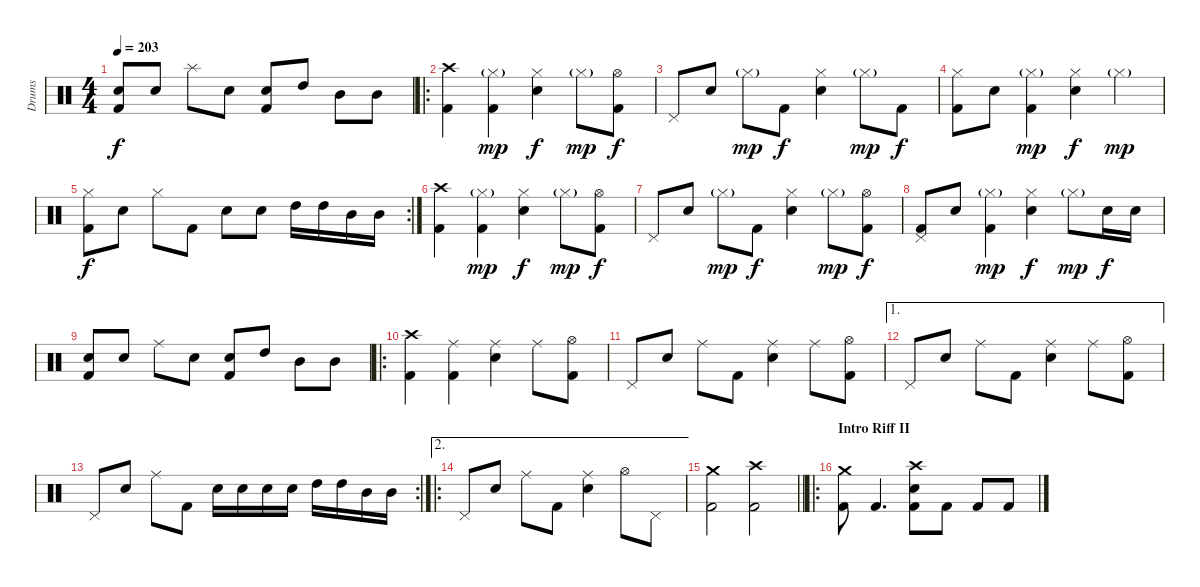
\track ("Drums" "Drums") {instrument percussion}
\staff {score}
\articulation defaults
\ts (4 4)
\tempo 203
\clef neutral
\ks c
("Electric Snare (hit)" "Kick (hit) 2").8{dy f} "Electric Snare (hit)".8 "Splash (hit)".8 "Electric Snare (hit)".8 ("Electric Snare (hit)" "Kick (hit) 2").8 "High Tom (hit)".8 "Mid Tom (hit)".8 "Mid Tom (hit)".8 |
\ro
("Crash high (hit)" "Kick (hit) 2").4 ("Hi-Hat (closed)"{g} "Kick (hit) 2").4{dy mp} ("Hi-Hat (closed)" "Electric Snare (hit)").4{dy f} "Hi-Hat (closed)"{g}.8{dy mp} ("Hi-Hat (open)" "Kick (hit) 2").8{dy f} |
"Pedal Hi-Hat (hit)".8 "Electric Snare (hit)".8 "Hi-Hat (closed)"{g}.8{dy mp} "Kick (hit) 2".8{dy f} ("Hi-Hat (closed)" "Electric Snare (hit)").4 "Hi-Hat (closed)"{g}.8{dy mp} "Kick (hit) 2".8{dy f} |
("Hi-Hat (closed)" "Kick (hit) 2").8 "Electric Snare (hit)".8 ("Hi-Hat (closed)"{g} "Kick (hit) 2").4{dy mp} ("Hi-Hat (closed)" "Electric Snare (hit)").4{dy f} "Hi-Hat (closed)"{g}.4{dy mp} |
\rc 2
("Hi-Hat (closed)" "Kick (hit) 2").8{dy f} "Electric Snare (hit)".8 "Hi-Hat (closed)".8 "Kick (hit) 2".8 "Electric Snare (hit)".8 "Electric Snare (hit)".8 "High Tom (hit)".16 "High Tom (hit)".16 "Mid Tom (hit)".16 "Mid Tom (hit)".16 |
("Crash high (hit)" "Kick (hit) 2").4 ("Hi-Hat (closed)"{g} "Kick (hit) 2").4{dy mp} ("Hi-Hat (closed)" "Electric Snare (hit)").4{dy f} "Hi-Hat (closed)"{g}.8{dy mp} ("Hi-Hat (open)" "Kick (hit) 2").8{dy f} |
"Pedal Hi-Hat (hit)".8 "Electric Snare (hit)".8 "Hi-Hat (closed)"{g}.8{dy mp} "Kick (hit) 2".8{dy f} ("Hi-Hat (closed)" "Electric Snare (hit)").4 "Hi-Hat (closed)"{g}.8{dy mp} ("Hi-Hat (open)" "Kick (hit) 2").8{dy f} |
("Pedal Hi-Hat (hit)" "Kick (hit) 2").8 "Electric Snare (hit)".8 ("Hi-Hat (closed)"{g} "Kick (hit) 2").4{dy mp} ("Hi-Hat (closed)" "Electric Snare (hit)").4{dy f} "Hi-Hat (closed)"{g}.8{dy mp} "Electric Snare (hit)".16{dy f} "Electric Snare (hit)".16 |
("Electric Snare (hit)" "Kick (hit) 2").8 "Electric Snare (hit)".8 "Ride (middle)".8 "Electric Snare (hit)".8 ("Electric Snare (hit)" "Kick (hit) 2").8 "High Tom (hit)".8 "Mid Tom (hit)".8 "Mid Tom (hit)".8 |
\ro
("Crash high (hit)" "Kick (hit) 2").4 ("Ride (middle)" "Kick (hit) 2").4 ("Ride (middle)" "Electric Snare (hit)").4 "Ride (middle)".8 ("Hi-Hat (open)" "Kick (hit) 2").8 |
"Pedal Hi-Hat (hit)".8 "Electric Snare (hit)".8 "Ride (middle)".8 "Kick (hit) 2".8 ("Ride (middle)" "Electric Snare (hit)").4 "Ride (middle)".8 ("Hi-Hat (open)" "Kick (hit) 2").8 |
\ae 1 "Pedal Hi-Hat (hit)".8 "Electric Snare (hit)".8 "Ride (middle)".8 "Kick (hit) 2".8
("Ride (middle)" "Electric Snare (hit)").4 "Ride (middle)".8 ("Hi-Hat (open)" "Kick (hit) 2").8 |
\rc 2 "Pedal Hi-Hat (hit)".8 "Electric Snare (hit)".8 "Ride (middle)".8 "Kick (hit) 2".8 "Electric Snare (hit)".16 "Electric Snare (hit)".16 "Electric Snare (hit)".16 "Electric Snare (hit)".16 "High Tom (hit)".16 "High Tom (hit)".16 "Mid Tom (hit)".16 "Mid Tom (hit)".16
|
\ae 2
\ro "Pedal Hi-Hat (hit)".8 "Electric Snare (hit)".8 "Ride (middle)".8 "Kick (hit) 2".8
("Ride (middle)" "Electric Snare (hit)").4 "Hi-Hat (open)".8 "Pedal Hi-Hat (hit)".8 |
\barLineRight lightlight
("Crash medium (hit)" "Kick (hit) 2").2 ("Crash high (hit)" "Kick (hit) 2").2 |
\ro
\section ("" "Intro Riff II")
("Crash medium (hit)" "Kick (hit) 2").8 "Kick (hit) 2".4{d} ("Crash high (hit)" "Electric Snare (hit)" "Kick (hit) 2").8 "Kick (hit) 2".8 "Kick (hit) 2".8 "Kick (hit) 2".8
